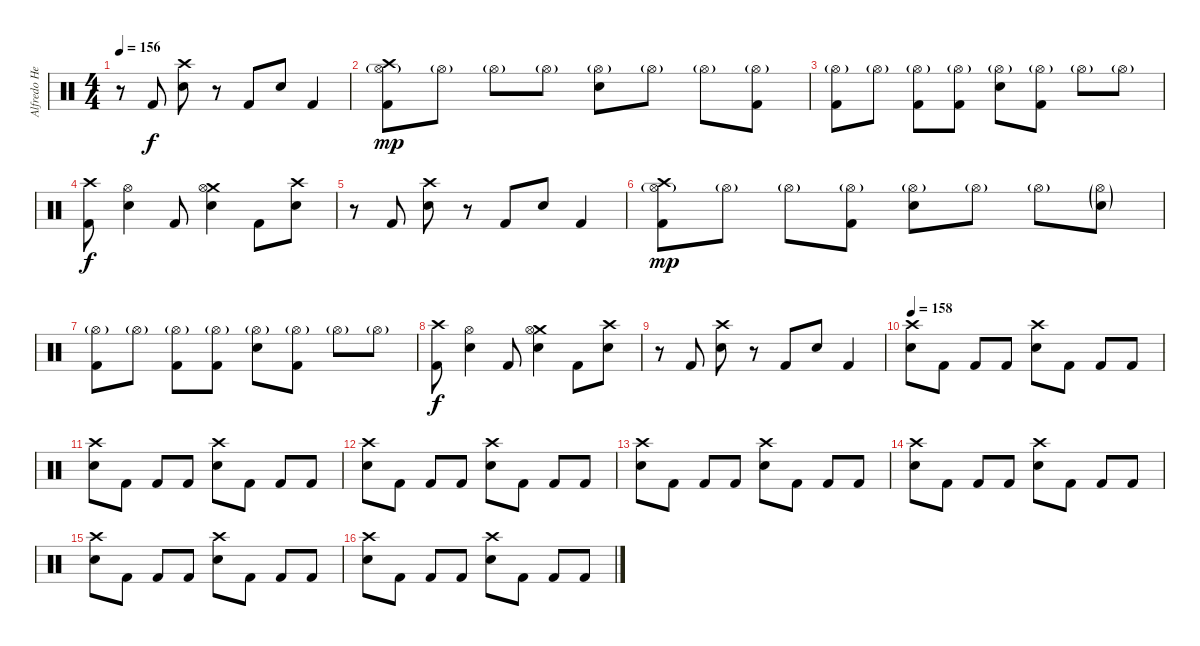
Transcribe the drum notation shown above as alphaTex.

\track ("Alfredo Hernández" "Alfredo He") {instrument percussion}
\staff {score}
\articulation defaults
\ts (4 4)
\tempo 156
\clef neutral
\ks c
r.8{dy f} "Kick (hit) 2".8 ("Crash high (hit)" "Electric Snare (hit)").8 r.8 "Kick (hit) 2".8 "Electric Snare (hit)".8 "Kick (hit) 2".4 |
("Crash high (hit)" "Hi-Hat (open)"{g} "Kick (hit) 2").8{dy mp} "Hi-Hat (open)"{g}.8 "Hi-Hat (open)"{g}.8 "Hi-Hat (open)"{g}.8 ("Electric Snare (hit)" "Hi-Hat (open)"{g}).8 "Hi-Hat (open)"{g}.8 "Hi-Hat (open)"{g}.8 ("Hi-Hat (open)"{g} "Kick (hit) 2").8 |
("Hi-Hat (open)"{g} "Kick (hit) 2").8 "Hi-Hat (open)"{g}.8 ("Hi-Hat (open)"{g} "Kick (hit) 2").8 ("Hi-Hat (open)"{g} "Kick (hit) 2").8 ("Electric Snare (hit)" "Hi-Hat (open)"{g}).8 ("Hi-Hat (open)"{g} "Kick (hit) 2").8 "Hi-Hat (open)"{g}.8 "Hi-Hat (open)"{g}.8 |
("Crash high (hit)" "Kick (hit) 2").8{dy f} ("Electric Snare (hit)" "Hi-Hat (open)").4 "Kick (hit) 2".8 ("Electric Snare (hit)" "Crash medium (hit)" "Hi-Hat (open)").4 "Kick (hit) 2".8 ("Electric Snare (hit)" "Crash high (hit)").8 |
r.8 "Kick (hit) 2".8 ("Crash high (hit)" "Electric Snare (hit)").8 r.8 "Kick (hit) 2".8 "Electric Snare (hit)".8 "Kick (hit) 2".4 |
("Crash high (hit)" "Hi-Hat (open)"{g} "Kick (hit) 2").8{dy mp} "Hi-Hat (open)"{g}.8 "Hi-Hat (open)"{g}.8 ("Hi-Hat (open)"{g} "Kick (hit) 2").8 ("Electric Snare (hit)" "Hi-Hat (open)"{g}).8 "Hi-Hat (open)"{g}.8 "Hi-Hat (open)"{g}.8 ("Electric Snare (hit)"{g} "Hi-Hat (open)"{g}).8 |
("Hi-Hat (open)"{g} "Kick (hit) 2").8 "Hi-Hat (open)"{g}.8 ("Hi-Hat (open)"{g} "Kick (hit) 2").8 ("Hi-Hat (open)"{g} "Kick (hit) 2").8 ("Electric Snare (hit)" "Hi-Hat (open)"{g}).8 ("Hi-Hat (open)"{g} "Kick (hit) 2").8 "Hi-Hat (open)"{g}.8 "Hi-Hat (open)"{g}.8 |
("Crash high (hit)" "Kick (hit) 2").8{dy f} ("Electric Snare (hit)" "Hi-Hat (open)").4 "Kick (hit) 2".8 ("Electric Snare (hit)" "Crash medium (hit)" "Hi-Hat (open)").4 "Kick (hit) 2".8 ("Electric Snare (hit)" "Crash high (hit)").8 |
r.8 "Kick (hit) 2".8 ("Crash high (hit)" "Electric Snare (hit)").8 r.8 "Kick (hit) 2".8 "Electric Snare (hit)".8 "Kick (hit) 2".4 |
\tempo 158
("Crash high (hit)" "Electric Snare (hit)").8 "Kick (hit) 2".8 "Kick (hit) 2".8 "Kick (hit) 2".8 ("Crash high (hit)" "Electric Snare (hit)").8 "Kick (hit) 2".8 "Kick (hit) 2".8 "Kick (hit) 2".8 |
("Crash high (hit)" "Electric Snare (hit)").8 "Kick (hit) 2".8 "Kick (hit) 2".8 "Kick (hit) 2".8 ("Crash high (hit)" "Electric Snare (hit)").8 "Kick (hit) 2".8 "Kick (hit) 2".8 "Kick (hit) 2".8 |
("Crash high (hit)" "Electric Snare (hit)").8 "Kick (hit) 2".8 "Kick (hit) 2".8 "Kick (hit) 2".8 ("Crash high (hit)" "Electric Snare (hit)").8 "Kick (hit) 2".8 "Kick (hit) 2".8 "Kick (hit) 2".8 |
("Crash high (hit)" "Electric Snare (hit)").8 "Kick (hit) 2".8 "Kick (hit) 2".8 "Kick (hit) 2".8 ("Crash high (hit)" "Electric Snare (hit)").8 "Kick (hit) 2".8 "Kick (hit) 2".8 "Kick (hit) 2".8 |
("Crash high (hit)" "Electric Snare (hit)").8 "Kick (hit) 2".8 "Kick (hit) 2".8 "Kick (hit) 2".8 ("Crash high (hit)" "Electric Snare (hit)").8 "Kick (hit) 2".8 "Kick (hit) 2".8 "Kick (hit) 2".8 |
("Crash high (hit)" "Electric Snare (hit)").8 "Kick (hit) 2".8 "Kick (hit) 2".8 "Kick (hit) 2".8 ("Crash high (hit)" "Electric Snare (hit)").8 "Kick (hit) 2".8 "Kick (hit) 2".8 "Kick (hit) 2".8 |
("Crash high (hit)" "Electric Snare (hit)").8 "Kick (hit) 2".8 "Kick (hit) 2".8 "Kick (hit) 2".8 ("Crash high (hit)" "Electric Snare (hit)").8 "Kick (hit) 2".8 "Kick (hit) 2".8 "Kick (hit) 2".8
